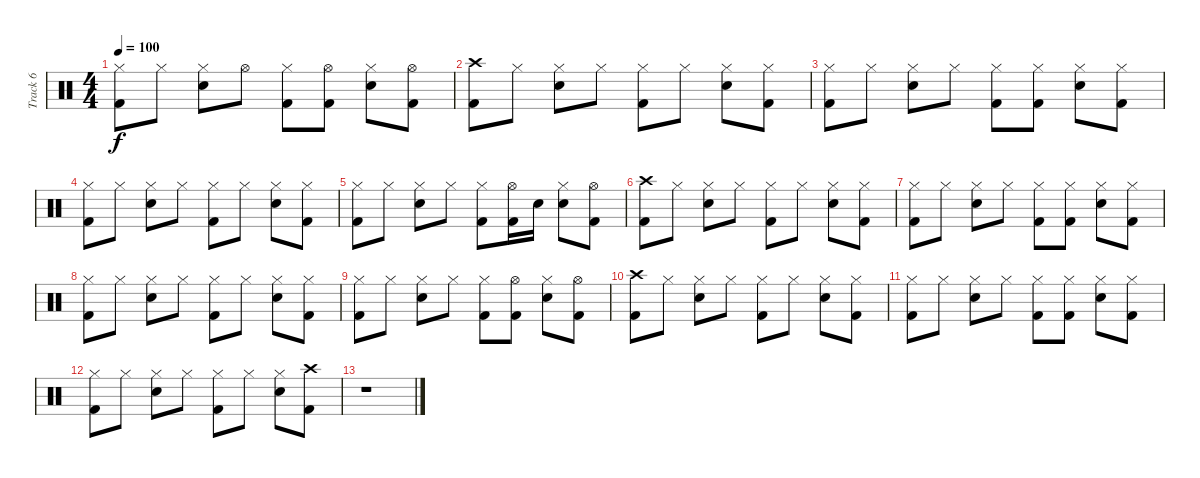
\track ("Track 6" "Track 6") {instrument percussion}
\staff {score}
\articulation defaults
\ts (4 4)
\tempo 100
\clef neutral
\ks c
("Hi-Hat (closed)" "Kick (hit) 2").8{dy f} "Hi-Hat (closed)".8 ("Hi-Hat (closed)" "Electric Snare (hit)").8 "Hi-Hat (open)".8 ("Hi-Hat (closed)" "Kick (hit) 2").8 ("Hi-Hat (open)" "Kick (hit) 2").8 ("Hi-Hat (closed)" "Electric Snare (hit)").8 ("Hi-Hat (open)" "Kick (hit) 2").8 |
("Crash high (hit)" "Kick (hit) 2").8 "Hi-Hat (closed)".8 ("Hi-Hat (closed)" "Electric Snare (hit)").8 "Hi-Hat (closed)".8 ("Hi-Hat (closed)" "Kick (hit) 2").8 "Hi-Hat (closed)".8 ("Hi-Hat (closed)" "Electric Snare (hit)").8 ("Hi-Hat (closed)" "Kick (hit) 2").8 |
("Hi-Hat (closed)" "Kick (hit) 2").8 "Hi-Hat (closed)".8 ("Hi-Hat (closed)" "Electric Snare (hit)").8 "Hi-Hat (closed)".8 ("Hi-Hat (closed)" "Kick (hit) 2").8 ("Hi-Hat (closed)" "Kick (hit) 2").8 ("Hi-Hat (closed)" "Electric Snare (hit)").8 ("Hi-Hat (closed)" "Kick (hit) 2").8 |
("Hi-Hat (closed)" "Kick (hit) 2").8 "Hi-Hat (closed)".8 ("Hi-Hat (closed)" "Electric Snare (hit)").8 "Hi-Hat (closed)".8 ("Hi-Hat (closed)" "Kick (hit) 2").8 "Hi-Hat (closed)".8 ("Hi-Hat (closed)" "Electric Snare (hit)").8 ("Hi-Hat (closed)" "Kick (hit) 2").8 |
("Hi-Hat (closed)" "Kick (hit) 2").8 "Hi-Hat (closed)".8 ("Hi-Hat (closed)" "Electric Snare (hit)").8 "Hi-Hat (closed)".8 ("Hi-Hat (closed)" "Kick (hit) 2").8 ("Hi-Hat (open)" "Kick (hit) 2").16 "Electric Snare (hit)".16 ("Hi-Hat (closed)" "Electric Snare (hit)").8 ("Hi-Hat (open)" "Kick (hit) 2").8 |
("Crash high (hit)" "Kick (hit) 2").8 "Hi-Hat (closed)".8 ("Hi-Hat (closed)" "Electric Snare (hit)").8 "Hi-Hat (closed)".8 ("Hi-Hat (closed)" "Kick (hit) 2").8 "Hi-Hat (closed)".8 ("Hi-Hat (closed)" "Electric Snare (hit)").8 ("Hi-Hat (closed)" "Kick (hit) 2").8 |
("Hi-Hat (closed)" "Kick (hit) 2").8 "Hi-Hat (closed)".8 ("Hi-Hat (closed)" "Electric Snare (hit)").8 "Hi-Hat (closed)".8 ("Hi-Hat (closed)" "Kick (hit) 2").8 ("Hi-Hat (closed)" "Kick (hit) 2").8 ("Hi-Hat (closed)" "Electric Snare (hit)").8 ("Hi-Hat (closed)" "Kick (hit) 2").8 |
("Hi-Hat (closed)" "Kick (hit) 2").8 "Hi-Hat (closed)".8 ("Hi-Hat (closed)" "Electric Snare (hit)").8 "Hi-Hat (closed)".8 ("Hi-Hat (closed)" "Kick (hit) 2").8 "Hi-Hat (closed)".8 ("Hi-Hat (closed)" "Electric Snare (hit)").8 ("Hi-Hat (closed)" "Kick (hit) 2").8 |
("Hi-Hat (closed)" "Kick (hit) 2").8 "Hi-Hat (closed)".8 ("Hi-Hat (closed)" "Electric Snare (hit)").8 "Hi-Hat (closed)".8 ("Hi-Hat (closed)" "Kick (hit) 2").8 ("Hi-Hat (open)" "Kick (hit) 2").8 ("Hi-Hat (closed)" "Electric Snare (hit)").8 ("Hi-Hat (open)" "Kick (hit) 2").8 |
("Crash high (hit)" "Kick (hit) 2").8 "Hi-Hat (closed)".8 ("Hi-Hat (closed)" "Electric Snare (hit)").8 "Hi-Hat (closed)".8 ("Hi-Hat (closed)" "Kick (hit) 2").8 "Hi-Hat (closed)".8 ("Hi-Hat (closed)" "Electric Snare (hit)").8 ("Hi-Hat (closed)" "Kick (hit) 2").8 |
("Hi-Hat (closed)" "Kick (hit) 2").8 "Hi-Hat (closed)".8 ("Hi-Hat (closed)" "Electric Snare (hit)").8 "Hi-Hat (closed)".8 ("Hi-Hat (closed)" "Kick (hit) 2").8 ("Hi-Hat (closed)" "Kick (hit) 2").8 ("Hi-Hat (closed)" "Electric Snare (hit)").8 ("Hi-Hat (closed)" "Kick (hit) 2").8 |
("Hi-Hat (closed)" "Kick (hit) 2").8 "Hi-Hat (closed)".8 ("Hi-Hat (closed)" "Electric Snare (hit)").8 "Hi-Hat (closed)".8 ("Hi-Hat (closed)" "Kick (hit) 2").8 "Hi-Hat (closed)".8 ("Hi-Hat (closed)" "Electric Snare (hit)").8 ("Crash high (hit)" "Kick (hit) 2").8 |
r.1
